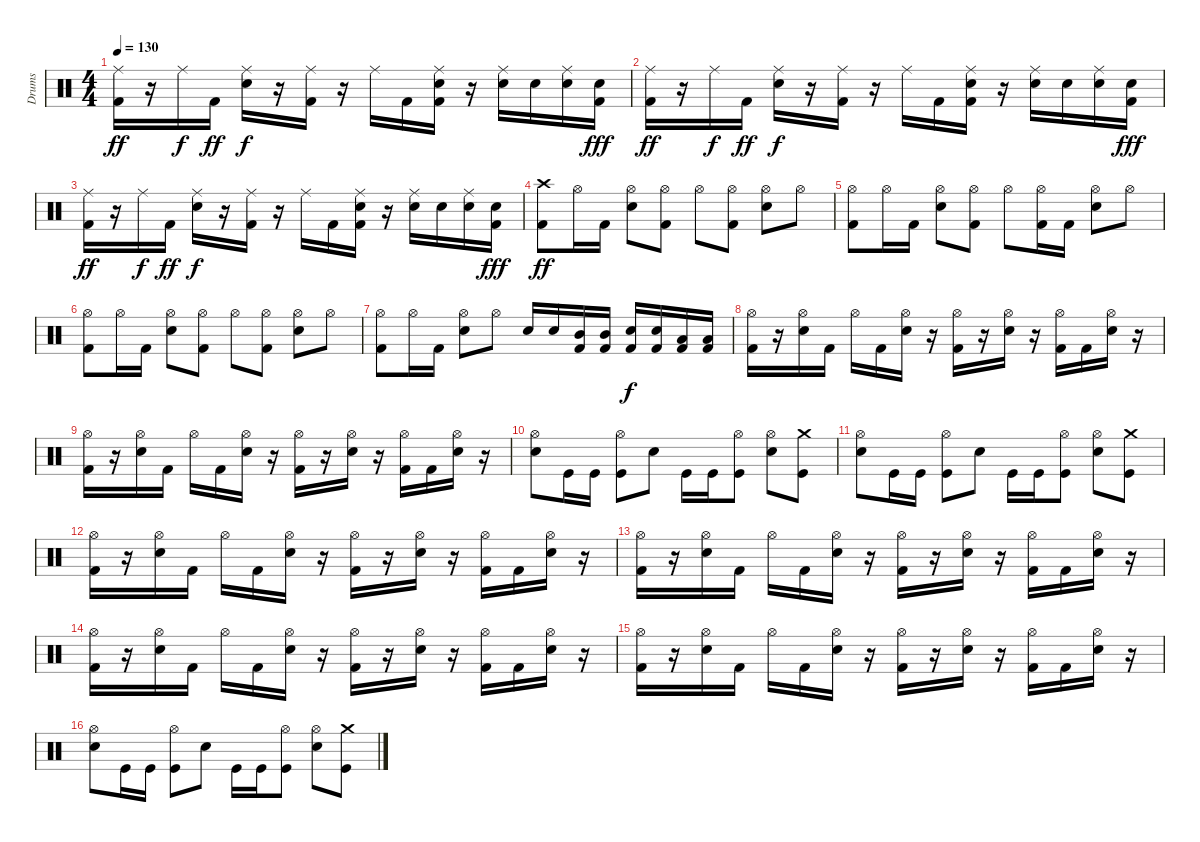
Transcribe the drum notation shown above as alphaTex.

\track ("Drums" "Drums") {instrument percussion}
\staff {score}
\articulation defaults
\ts (4 4)
\tempo 130
\clef neutral
\ks c
("Kick (hit) 2" "Ride (middle)").16{dy ff} r.16 "Ride (middle)".16{dy f} "Kick (hit) 2".16{dy ff} ("Electric Snare (hit)" "Ride (middle)").16{dy f} r.16 ("Kick (hit) 2" "Ride (middle)").16 r.16 "Ride (middle)".16 "Kick (hit) 2".16 ("Electric Snare (hit)" "Kick (hit) 2" "Ride (middle)").16 r.16 ("Electric Snare (hit)" "Ride (middle)").16 "Electric Snare (hit)".16 ("Electric Snare (hit)" "Ride (middle)").16 ("Electric Snare (hit)" "Kick (hit) 2").16{dy fff} |
("Kick (hit) 2" "Ride (middle)").16{dy ff} r.16 "Ride (middle)".16{dy f} "Kick (hit) 2".16{dy ff} ("Electric Snare (hit)" "Ride (middle)").16{dy f} r.16 ("Kick (hit) 2" "Ride (middle)").16 r.16 "Ride (middle)".16 "Kick (hit) 2".16 ("Electric Snare (hit)" "Kick (hit) 2" "Ride (middle)").16 r.16 ("Electric Snare (hit)" "Ride (middle)").16 "Electric Snare (hit)".16 ("Electric Snare (hit)" "Ride (middle)").16 ("Electric Snare (hit)" "Kick (hit) 2").16{dy fff} |
("Kick (hit) 2" "Ride (middle)").16{dy ff} r.16 "Ride (middle)".16{dy f} "Kick (hit) 2".16{dy ff} ("Electric Snare (hit)" "Ride (middle)").16{dy f} r.16 ("Kick (hit) 2" "Ride (middle)").16 r.16 "Ride (middle)".16 "Kick (hit) 2".16 ("Electric Snare (hit)" "Kick (hit) 2" "Ride (middle)").16 r.16 ("Electric Snare (hit)" "Ride (middle)").16 "Electric Snare (hit)".16 ("Electric Snare (hit)" "Ride (middle)").16 ("Electric Snare (hit)" "Kick (hit) 2").16{dy fff} |
("Kick (hit) 2" "Crash high (hit)").8{dy ff} "Hi-Hat (open)".16 "Kick (hit) 2".16 ("Hi-Hat (open)" "Electric Snare (hit)").8 ("Kick (hit) 2" "Hi-Hat (open)").8 "Hi-Hat (open)".8 ("Kick (hit) 2" "Hi-Hat (open)").8 ("Hi-Hat (open)" "Electric Snare (hit)").8 "Hi-Hat (open)".8 |
("Kick (hit) 2" "Hi-Hat (open)").8 "Hi-Hat (open)".16 "Kick (hit) 2".16 ("Hi-Hat (open)" "Electric Snare (hit)").8 ("Kick (hit) 2" "Hi-Hat (open)").8 "Hi-Hat (open)".8 ("Kick (hit) 2" "Hi-Hat (open)").16 "Kick (hit) 2".16 ("Hi-Hat (open)" "Electric Snare (hit)").8 "Hi-Hat (open)".8 |
("Kick (hit) 2" "Hi-Hat (open)").8 "Hi-Hat (open)".16 "Kick (hit) 2".16 ("Hi-Hat (open)" "Electric Snare (hit)").8 ("Kick (hit) 2" "Hi-Hat (open)").8 "Hi-Hat (open)".8 ("Kick (hit) 2" "Hi-Hat (open)").8 ("Hi-Hat (open)" "Electric Snare (hit)").8 "Hi-Hat (open)".8 |
("Kick (hit) 2" "Hi-Hat (open)").8 "Hi-Hat (open)".16 "Kick (hit) 2".16 ("Hi-Hat (open)" "Electric Snare (hit)").8 "Hi-Hat (open)".8 "Electric Snare (hit)".16 "Electric Snare (hit)".16 ("Kick (hit) 2" "Mid Tom (hit)").16 ("Kick (hit) 2" "Mid Tom (hit)").16 ("Kick (hit) 2" "Electric Snare (hit)").16{dy f} ("Kick (hit) 2" "Electric Snare (hit)").16 ("Kick (hit) 2" "Low Tom (hit)").16 ("Kick (hit) 2" "Low Tom (hit)").16 |
("Kick (hit) 2" "Hi-Hat (open)").16 r.16 ("Electric Snare (hit)" "Hi-Hat (open)").16 "Kick (hit) 2".16 "Hi-Hat (open)".16 "Kick (hit) 2".16 ("Electric Snare (hit)" "Hi-Hat (open)").16 r.16 ("Kick (hit) 2" "Hi-Hat (open)").16 r.16 ("Electric Snare (hit)" "Hi-Hat (open)").16 r.16 ("Kick (hit) 2" "Hi-Hat (open)").16 "Kick (hit) 2".16 ("Electric Snare (hit)" "Hi-Hat (open)").16 r.16 |
("Kick (hit) 2" "Hi-Hat (open)").16 r.16 ("Electric Snare (hit)" "Hi-Hat (open)").16 "Kick (hit) 2".16 "Hi-Hat (open)".16 "Kick (hit) 2".16 ("Electric Snare (hit)" "Hi-Hat (open)").16 r.16 ("Kick (hit) 2" "Hi-Hat (open)").16 r.16 ("Electric Snare (hit)" "Hi-Hat (open)").16 r.16 ("Hi-Hat (open)" "Kick (hit) 2").16 "Kick (hit) 2".16 ("Electric Snare (hit)" "Hi-Hat (open)").16 r.16 |
("Hi-Hat (open)" "Electric Snare (hit)").8 "Kick (hit)".16 "Kick (hit)".16 ("Hi-Hat (open)" "Kick (hit)").8 "Electric Snare (hit)".8 "Kick (hit)".16 "Kick (hit)".16 ("Hi-Hat (open)" "Kick (hit)").8 ("Hi-Hat (open)" "Electric Snare (hit)").8 ("Crash medium (hit)" "Kick (hit)").8 |
("Hi-Hat (open)" "Electric Snare (hit)").8 "Kick (hit)".16 "Kick (hit)".16 ("Hi-Hat (open)" "Kick (hit)").8 "Electric Snare (hit)".8 "Kick (hit)".16 "Kick (hit)".16 ("Hi-Hat (open)" "Kick (hit)").8 ("Hi-Hat (open)" "Electric Snare (hit)").8 ("Crash medium (hit)" "Kick (hit)").8 |
("Kick (hit) 2" "Hi-Hat (open)").16 r.16 ("Electric Snare (hit)" "Hi-Hat (open)").16 "Kick (hit) 2".16 "Hi-Hat (open)".16 "Kick (hit) 2".16 ("Electric Snare (hit)" "Hi-Hat (open)").16 r.16 ("Kick (hit) 2" "Hi-Hat (open)").16 r.16 ("Electric Snare (hit)" "Hi-Hat (open)").16 r.16 ("Kick (hit) 2" "Hi-Hat (open)").16 "Kick (hit) 2".16 ("Electric Snare (hit)" "Hi-Hat (open)").16 r.16 |
("Kick (hit) 2" "Hi-Hat (open)").16 r.16 ("Electric Snare (hit)" "Hi-Hat (open)").16 "Kick (hit) 2".16 "Hi-Hat (open)".16 "Kick (hit) 2".16 ("Electric Snare (hit)" "Hi-Hat (open)").16 r.16 ("Kick (hit) 2" "Hi-Hat (open)").16 r.16 ("Electric Snare (hit)" "Hi-Hat (open)").16 r.16 ("Kick (hit) 2" "Hi-Hat (open)").16 "Kick (hit) 2".16 ("Electric Snare (hit)" "Hi-Hat (open)").16 r.16 |
("Kick (hit) 2" "Hi-Hat (open)").16 r.16 ("Electric Snare (hit)" "Hi-Hat (open)").16 "Kick (hit) 2".16 "Hi-Hat (open)".16 "Kick (hit) 2".16 ("Electric Snare (hit)" "Hi-Hat (open)").16 r.16 ("Kick (hit) 2" "Hi-Hat (open)").16 r.16 ("Electric Snare (hit)" "Hi-Hat (open)").16 r.16 ("Kick (hit) 2" "Hi-Hat (open)").16 "Kick (hit) 2".16 ("Electric Snare (hit)" "Hi-Hat (open)").16 r.16 |
("Kick (hit) 2" "Hi-Hat (open)").16 r.16 ("Electric Snare (hit)" "Hi-Hat (open)").16 "Kick (hit) 2".16 "Hi-Hat (open)".16 "Kick (hit) 2".16 ("Electric Snare (hit)" "Hi-Hat (open)").16 r.16 ("Kick (hit) 2" "Hi-Hat (open)").16 r.16 ("Electric Snare (hit)" "Hi-Hat (open)").16 r.16 ("Kick (hit) 2" "Hi-Hat (open)").16 "Kick (hit) 2".16 ("Electric Snare (hit)" "Hi-Hat (open)").16 r.16 |
("Hi-Hat (open)" "Electric Snare (hit)").8 "Kick (hit)".16 "Kick (hit)".16 ("Hi-Hat (open)" "Kick (hit)").8 "Electric Snare (hit)".8 "Kick (hit)".16 "Kick (hit)".16 ("Hi-Hat (open)" "Kick (hit)").8 ("Hi-Hat (open)" "Electric Snare (hit)").8 ("Crash medium (hit)" "Kick (hit)").8
